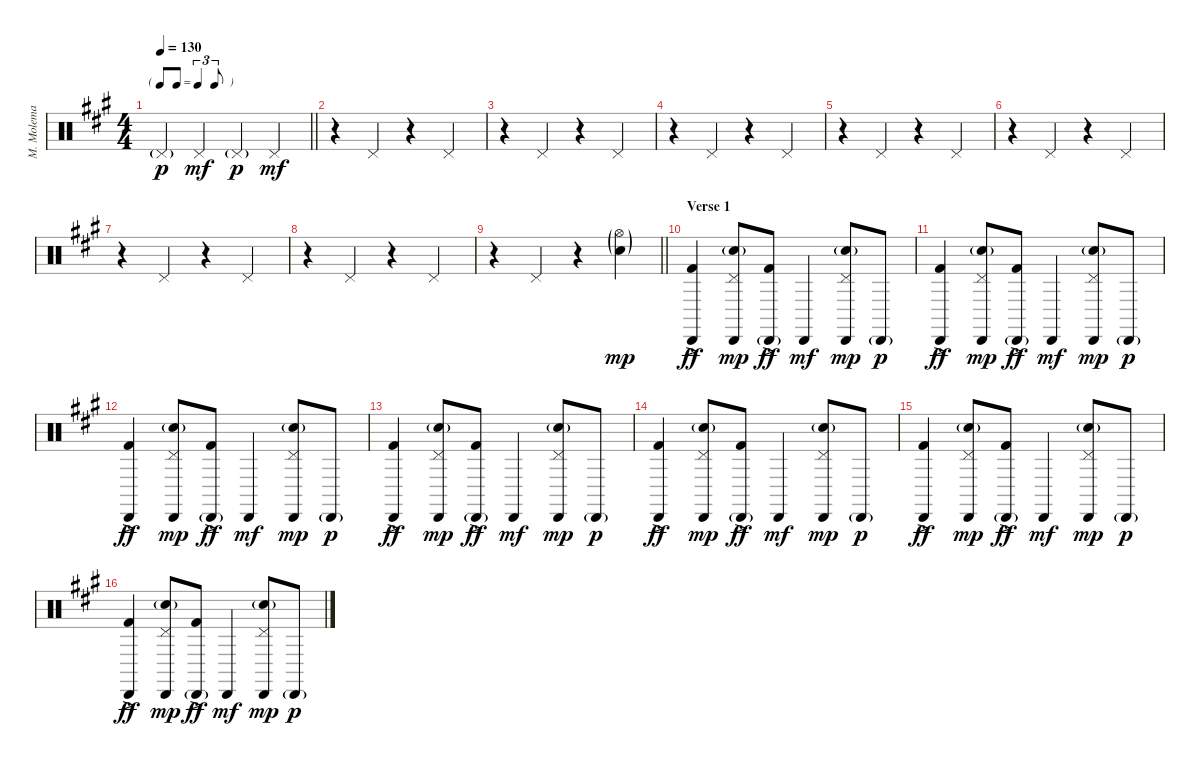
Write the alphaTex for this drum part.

\track ("M. Molema" "M. Molema") {instrument percussion}
\staff {score}
\articulation defaults
\ts (4 4)
\tf triplet8th
\tempo 130
\clef neutral
\barLineRight lightlight
\ks a "Pedal Hi-Hat (hit)"{g}.4{dy p} "Pedal Hi-Hat (hit)".4{dy mf} "Pedal Hi-Hat (hit)"{g}.4{dy p} "Pedal Hi-Hat (hit)".4{dy mf}
|
r.4 "Pedal Hi-Hat (hit)".4 r.4 "Pedal Hi-Hat (hit)".4 |
r.4 "Pedal Hi-Hat (hit)".4 r.4 "Pedal Hi-Hat (hit)".4 |
r.4 "Pedal Hi-Hat (hit)".4 r.4 "Pedal Hi-Hat (hit)".4 |
r.4 "Pedal Hi-Hat (hit)".4 r.4 "Pedal Hi-Hat (hit)".4 |
r.4 "Pedal Hi-Hat (hit)".4 r.4 "Pedal Hi-Hat (hit)".4 |
r.4 "Pedal Hi-Hat (hit)".4 r.4 "Pedal Hi-Hat (hit)".4 |
r.4 "Pedal Hi-Hat (hit)".4 r.4 "Pedal Hi-Hat (hit)".4 |
\barLineRight lightlight
r.4 "Pedal Hi-Hat (hit)".4 r.4 ("Hi-Hat (open)"{g} "Snare (hit) 2"{g}).4{dy mp} |
\section ("" "Verse 1")
("Cabasa (hit)" "Kick (hit) 2"{ac}).4{dy ff} ("Pedal Hi-Hat (hit)" "Cabasa (hit)" "Snare (hit) 2"{g}).8{dy mp} ("Cabasa (hit)"{g} "Kick (hit) 2"{ac}).8{dy ff} "Cabasa (hit)".4{dy mf} ("Pedal Hi-Hat (hit)" "Cabasa (hit)" "Snare (hit) 2"{g}).8{dy mp} "Cabasa (hit)"{g}.8{dy p} |
("Cabasa (hit)" "Kick (hit) 2"{ac}).4{dy ff} ("Pedal Hi-Hat (hit)" "Cabasa (hit)" "Snare (hit) 2"{g}).8{dy mp} ("Cabasa (hit)"{g} "Kick (hit) 2"{ac}).8{dy ff} "Cabasa (hit)".4{dy mf} ("Pedal Hi-Hat (hit)" "Cabasa (hit)" "Snare (hit) 2"{g}).8{dy mp} "Cabasa (hit)"{g}.8{dy p} |
("Cabasa (hit)" "Kick (hit) 2"{ac}).4{dy ff} ("Pedal Hi-Hat (hit)" "Cabasa (hit)" "Snare (hit) 2"{g}).8{dy mp} ("Cabasa (hit)"{g} "Kick (hit) 2"{ac}).8{dy ff} "Cabasa (hit)".4{dy mf} ("Pedal Hi-Hat (hit)" "Cabasa (hit)" "Snare (hit) 2"{g}).8{dy mp} "Cabasa (hit)"{g}.8{dy p} |
("Cabasa (hit)" "Kick (hit) 2"{ac}).4{dy ff} ("Pedal Hi-Hat (hit)" "Cabasa (hit)" "Snare (hit) 2"{g}).8{dy mp} ("Cabasa (hit)"{g} "Kick (hit) 2"{ac}).8{dy ff} "Cabasa (hit)".4{dy mf} ("Pedal Hi-Hat (hit)" "Cabasa (hit)" "Snare (hit) 2"{g}).8{dy mp} "Cabasa (hit)"{g}.8{dy p} |
("Cabasa (hit)" "Kick (hit) 2"{ac}).4{dy ff} ("Pedal Hi-Hat (hit)" "Cabasa (hit)" "Snare (hit) 2"{g}).8{dy mp} ("Cabasa (hit)"{g} "Kick (hit) 2"{ac}).8{dy ff} "Cabasa (hit)".4{dy mf} ("Pedal Hi-Hat (hit)" "Cabasa (hit)" "Snare (hit) 2"{g}).8{dy mp} "Cabasa (hit)"{g}.8{dy p} |
("Cabasa (hit)" "Kick (hit) 2"{ac}).4{dy ff} ("Pedal Hi-Hat (hit)" "Cabasa (hit)" "Snare (hit) 2"{g}).8{dy mp} ("Cabasa (hit)"{g} "Kick (hit) 2"{ac}).8{dy ff} "Cabasa (hit)".4{dy mf} ("Pedal Hi-Hat (hit)" "Cabasa (hit)" "Snare (hit) 2"{g}).8{dy mp} "Cabasa (hit)"{g}.8{dy p} |
("Cabasa (hit)" "Kick (hit) 2"{ac}).4{dy ff} ("Pedal Hi-Hat (hit)" "Cabasa (hit)" "Snare (hit) 2"{g}).8{dy mp} ("Cabasa (hit)"{g} "Kick (hit) 2"{ac}).8{dy ff} "Cabasa (hit)".4{dy mf} ("Pedal Hi-Hat (hit)" "Cabasa (hit)" "Snare (hit) 2"{g}).8{dy mp} "Cabasa (hit)"{g}.8{dy p}
